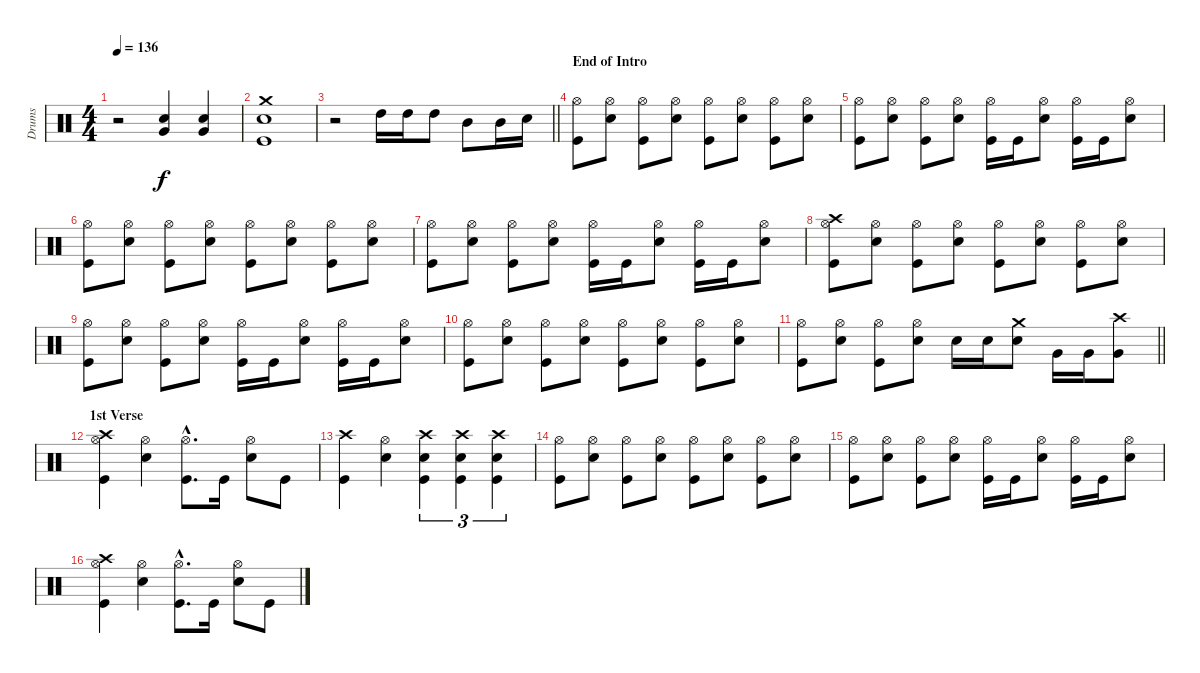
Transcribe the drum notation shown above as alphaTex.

\track ("Drums" "Drums") {instrument percussion}
\staff {score}
\articulation defaults
\ts (4 4)
\tempo 136
\clef neutral
\ks c
r.2{dy f} ("Very Low Tom (hit)" "Electric Snare (hit)").4 ("Very Low Tom (hit)" "Electric Snare (hit)").4 |
("Crash medium (hit)" "Electric Snare (hit)" "Kick (hit)").1 |
\barLineRight lightlight
r.2 "High Tom (hit)".16 "High Tom (hit)".16 "High Tom (hit)".8 "Mid Tom (hit)".8 "Mid Tom (hit)".16 "Electric Snare (hit)".16 |
\section ("" "End of Intro")
("Hi-Hat (open)" "Kick (hit)").8 ("Hi-Hat (open)" "Electric Snare (hit)").8 ("Hi-Hat (open)" "Kick (hit)").8 ("Hi-Hat (open)" "Electric Snare (hit)").8 ("Hi-Hat (open)" "Kick (hit)").8 ("Hi-Hat (open)" "Electric Snare (hit)").8 ("Hi-Hat (open)" "Kick (hit)").8 ("Hi-Hat (open)" "Electric Snare (hit)").8 |
("Hi-Hat (open)" "Kick (hit)").8 ("Hi-Hat (open)" "Electric Snare (hit)").8 ("Hi-Hat (open)" "Kick (hit)").8 ("Hi-Hat (open)" "Electric Snare (hit)").8 ("Hi-Hat (open)" "Kick (hit)").16 "Kick (hit)".16 ("Hi-Hat (open)" "Electric Snare (hit)").8 ("Hi-Hat (open)" "Kick (hit)").16 "Kick (hit)".16 ("Hi-Hat (open)" "Electric Snare (hit)").8 |
("Hi-Hat (open)" "Kick (hit)").8 ("Hi-Hat (open)" "Electric Snare (hit)").8 ("Hi-Hat (open)" "Kick (hit)").8 ("Hi-Hat (open)" "Electric Snare (hit)").8 ("Hi-Hat (open)" "Kick (hit)").8 ("Hi-Hat (open)" "Electric Snare (hit)").8 ("Hi-Hat (open)" "Kick (hit)").8 ("Hi-Hat (open)" "Electric Snare (hit)").8 |
("Hi-Hat (open)" "Kick (hit)").8 ("Hi-Hat (open)" "Electric Snare (hit)").8 ("Hi-Hat (open)" "Kick (hit)").8 ("Hi-Hat (open)" "Electric Snare (hit)").8 ("Hi-Hat (open)" "Kick (hit)").16 "Kick (hit)".16 ("Hi-Hat (open)" "Electric Snare (hit)").8 ("Hi-Hat (open)" "Kick (hit)").16 "Kick (hit)".16 ("Hi-Hat (open)" "Electric Snare (hit)").8 |
("Crash high (hit)" "Hi-Hat (open)" "Kick (hit)").8 ("Hi-Hat (open)" "Electric Snare (hit)").8 ("Hi-Hat (open)" "Kick (hit)").8 ("Hi-Hat (open)" "Electric Snare (hit)").8 ("Hi-Hat (open)" "Kick (hit)").8 ("Hi-Hat (open)" "Electric Snare (hit)").8 ("Hi-Hat (open)" "Kick (hit)").8 ("Hi-Hat (open)" "Electric Snare (hit)").8 |
("Hi-Hat (open)" "Kick (hit)").8 ("Hi-Hat (open)" "Electric Snare (hit)").8 ("Hi-Hat (open)" "Kick (hit)").8 ("Hi-Hat (open)" "Electric Snare (hit)").8 ("Hi-Hat (open)" "Kick (hit)").16 "Kick (hit)".16 ("Hi-Hat (open)" "Electric Snare (hit)").8 ("Hi-Hat (open)" "Kick (hit)").16 "Kick (hit)".16 ("Hi-Hat (open)" "Electric Snare (hit)").8 |
("Hi-Hat (open)" "Kick (hit)").8 ("Hi-Hat (open)" "Electric Snare (hit)").8 ("Hi-Hat (open)" "Kick (hit)").8 ("Hi-Hat (open)" "Electric Snare (hit)").8 ("Hi-Hat (open)" "Kick (hit)").8 ("Hi-Hat (open)" "Electric Snare (hit)").8 ("Hi-Hat (open)" "Kick (hit)").8 ("Hi-Hat (open)" "Electric Snare (hit)").8 |
\barLineRight lightlight
("Hi-Hat (open)" "Kick (hit)").8 ("Hi-Hat (open)" "Electric Snare (hit)").8 ("Hi-Hat (open)" "Kick (hit)").8 ("Hi-Hat (open)" "Electric Snare (hit)").8 "Electric Snare (hit)".16 "Electric Snare (hit)".16 ("Crash medium (hit)" "Electric Snare (hit)").8 "Very Low Tom (hit)".16 "Very Low Tom (hit)".16 ("Crash high (hit)" "Very Low Tom (hit)").8 |
\section ("" "1st Verse")
("Crash high (hit)" "Hi-Hat (open)" "Kick (hit)").4 ("Hi-Hat (open)" "Electric Snare (hit)").4 ("Hi-Hat (open)"{hac} "Kick (hit)"{hac}).8{d} "Kick (hit)".16 ("Hi-Hat (open)" "Electric Snare (hit)").8 "Kick (hit)".8 |
("Crash high (hit)" "Kick (hit)").4 ("Hi-Hat (open)" "Electric Snare (hit)").4 ("Crash high (hit)" "Electric Snare (hit)" "Kick (hit)").4{tu (3 2)} ("Crash high (hit)" "Electric Snare (hit)" "Kick (hit)").4{tu (3 2)} ("Crash high (hit)" "Electric Snare (hit)" "Kick (hit)").4{tu (3 2)} |
("Hi-Hat (open)" "Kick (hit)").8 ("Hi-Hat (open)" "Electric Snare (hit)").8 ("Hi-Hat (open)" "Kick (hit)").8 ("Hi-Hat (open)" "Electric Snare (hit)").8 ("Hi-Hat (open)" "Kick (hit)").8 ("Hi-Hat (open)" "Electric Snare (hit)").8 ("Hi-Hat (open)" "Kick (hit)").8 ("Hi-Hat (open)" "Electric Snare (hit)").8 |
("Hi-Hat (open)" "Kick (hit)").8 ("Hi-Hat (open)" "Electric Snare (hit)").8 ("Hi-Hat (open)" "Kick (hit)").8 ("Hi-Hat (open)" "Electric Snare (hit)").8 ("Hi-Hat (open)" "Kick (hit)").16 "Kick (hit)".16 ("Hi-Hat (open)" "Electric Snare (hit)").8 ("Hi-Hat (open)" "Kick (hit)").16 "Kick (hit)".16 ("Hi-Hat (open)" "Electric Snare (hit)").8 |
("Crash high (hit)" "Hi-Hat (open)" "Kick (hit)").4 ("Hi-Hat (open)" "Electric Snare (hit)").4 ("Hi-Hat (open)"{hac} "Kick (hit)"{hac}).8{d} "Kick (hit)".16 ("Hi-Hat (open)" "Electric Snare (hit)").8 "Kick (hit)".8
